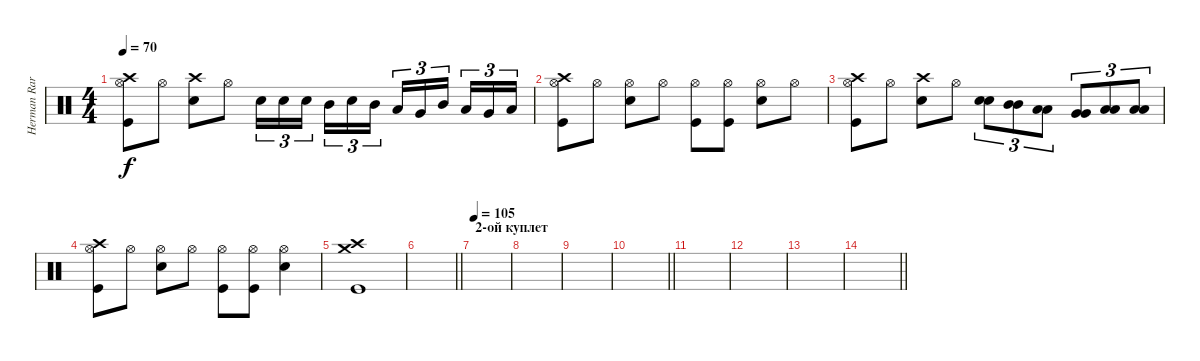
\track ("Herman Rarebell" "Herman Rar") {instrument percussion}
\staff {score}
\articulation defaults
\ts (4 4)
\tempo 70
\clef neutral
\ks c
("Hi-Hat (open)" "Crash high (hit)" "Kick (hit)").8{dy f} "Hi-Hat (open)".8 ("Crash high (hit)" "Snare (hit) 2").8 "Hi-Hat (open)".8 "Snare (hit) 2".16{tu (3 2)} "Snare (hit) 2".16{tu (3 2)} "Snare (hit) 2".16{tu (3 2) beam splitsecondary} "Mid Tom (hit)".16{tu (3 2)} "Snare (hit) 2".16{tu (3 2)} "Mid Tom (hit)".16{tu (3 2)} "Low Tom (hit)".16{tu (3 2)} "Very Low Tom (hit)".16{tu (3 2)} "Mid Tom (hit)".16{tu (3 2) beam splitsecondary} "Low Tom (hit)".16{tu (3 2)} "Very Low Tom (hit)".16{tu (3 2)} "Low Floor Tom (hit)".16{tu (3 2)} |
("Hi-Hat (open)" "Crash high (hit)" "Kick (hit)").8 "Hi-Hat (open)".8 ("Hi-Hat (open)" "Snare (hit) 2").8 "Hi-Hat (open)".8 ("Hi-Hat (open)" "Kick (hit)").8 ("Hi-Hat (open)" "Kick (hit)").8 ("Hi-Hat (open)" "Snare (hit) 2").8 "Hi-Hat (open)".8 |
("Hi-Hat (open)" "Crash high (hit)" "Kick (hit)").8 "Hi-Hat (open)".8 ("Crash high (hit)" "Snare (hit) 2").8 "Hi-Hat (open)".8 ("Snare (hit) 2" "Snare (hit) 2").8{tu (3 2)} ("Mid Tom (hit)" "Mid Tom (hit)").8{tu (3 2)} ("Low Tom (hit)" "Low Tom (hit)").8{tu (3 2)} ("Very Low Tom (hit)" "Very Low Tom (hit)").8{tu (3 2)} ("Low Floor Tom (hit)" "Low Floor Tom (hit)").8{tu (3 2)} ("Low Floor Tom (hit)" "Low Floor Tom (hit)").8{tu (3 2)} |
("Hi-Hat (open)" "Crash high (hit)" "Kick (hit)").8 "Hi-Hat (open)".8 ("Hi-Hat (open)" "Snare (hit) 2").8 "Hi-Hat (open)".8 ("Hi-Hat (open)" "Kick (hit)").8 ("Hi-Hat (open)" "Kick (hit)").8 ("Hi-Hat (open)" "Snare (hit) 2").4 |
("Crash high (hit)" "Crash medium (hit)" "Kick (hit)").1 |
\barLineRight lightlight
|
\section ("" "2-ой куплет")
\tempo 105
|
|
|
\barLineRight lightlight
|
|
|
|
\barLineRight lightlight
